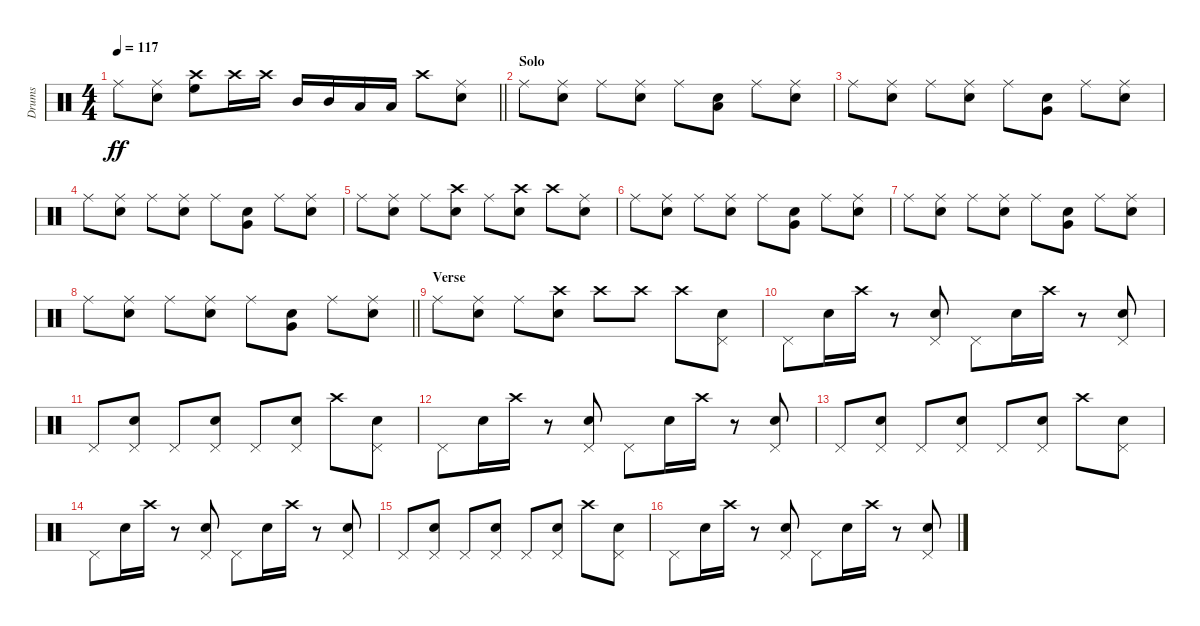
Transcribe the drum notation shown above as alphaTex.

\track ("Drums" "Drums") {instrument percussion}
\staff {score}
\articulation defaults
\ts (4 4)
\tempo 117
\clef neutral
\barLineRight lightlight
\ks c "Ride (middle)".8{dy ff}
("Snare (hit) 2" "Ride (middle)").8 ("Crash high (hit)" "High Floor Tom (hit)").8 "Crash high (hit)".16 "Crash high (hit)".16 "Mid Tom (hit)".16 "Mid Tom (hit)".16 "Low Tom (hit)".16 "Low Tom (hit)".16 "Crash high (hit)".8 ("Snare (hit) 2" "Ride (middle)").8 |
\section ("" "Solo")
"Ride (middle)".8 ("Snare (hit) 2" "Ride (middle)").8 "Ride (middle)".8 ("Snare (hit) 2" "Ride (middle)").8 "Ride (middle)".8 ("Snare (hit) 2" "Low Floor Tom (hit)").8 "Ride (middle)".8 ("Snare (hit) 2" "Ride (middle)").8 |
"Ride (middle)".8 ("Snare (hit) 2" "Ride (middle)").8 "Ride (middle)".8 ("Snare (hit) 2" "Ride (middle)").8 "Ride (middle)".8 ("Snare (hit) 2" "Very Low Tom (hit)").8 "Ride (middle)".8 ("Snare (hit) 2" "Ride (middle)").8 |
"Ride (middle)".8 ("Snare (hit) 2" "Ride (middle)").8 "Ride (middle)".8 ("Snare (hit) 2" "Ride (middle)").8 "Ride (middle)".8 ("Snare (hit) 2" "Very Low Tom (hit)").8 "Ride (middle)".8 ("Snare (hit) 2" "Ride (middle)").8 |
"Ride (middle)".8 ("Snare (hit) 2" "Ride (middle)").8 "Ride (middle)".8 ("Snare (hit) 2" "Crash high (hit)").8 "Ride (middle)".8 ("Snare (hit) 2" "Crash high (hit)").8 "Crash high (hit)".8 ("Snare (hit) 2" "Ride (middle)").8 |
"Ride (middle)".8 ("Snare (hit) 2" "Ride (middle)").8 "Ride (middle)".8 ("Snare (hit) 2" "Ride (middle)").8 "Ride (middle)".8 ("Snare (hit) 2" "Very Low Tom (hit)").8 "Ride (middle)".8 ("Snare (hit) 2" "Ride (middle)").8 |
"Ride (middle)".8 ("Snare (hit) 2" "Ride (middle)").8 "Ride (middle)".8 ("Snare (hit) 2" "Ride (middle)").8 "Ride (middle)".8 ("Snare (hit) 2" "Very Low Tom (hit)").8 "Ride (middle)".8 ("Snare (hit) 2" "Ride (middle)").8 |
\barLineRight lightlight "Ride (middle)".8
("Snare (hit) 2" "Ride (middle)").8 "Ride (middle)".8 ("Snare (hit) 2" "Ride (middle)").8 "Ride (middle)".8 ("Snare (hit) 2" "Very Low Tom (hit)").8 "Ride (middle)".8 ("Snare (hit) 2" "Ride (middle)").8 |
\section ("" "Verse")
"Ride (middle)".8 ("Snare (hit) 2" "Ride (middle)").8 "Ride (middle)".8 ("Snare (hit) 2" "Crash high (hit)").8 "Crash high (hit)".8 "Crash high (hit)".8 "Crash high (hit)".8 ("Snare (hit) 2" "Pedal Hi-Hat (hit)").8 |
"Pedal Hi-Hat (hit)".8 "Snare (hit) 2".16 "Crash high (hit)".16 r.8 ("Snare (hit) 2" "Pedal Hi-Hat (hit)").8 "Pedal Hi-Hat (hit)".8 "Snare (hit) 2".16 "Crash high (hit)".16 r.8 ("Snare (hit) 2" "Pedal Hi-Hat (hit)").8 |
"Pedal Hi-Hat (hit)".8 ("Snare (hit) 2" "Pedal Hi-Hat (hit)").8 "Pedal Hi-Hat (hit)".8 ("Snare (hit) 2" "Pedal Hi-Hat (hit)").8 "Pedal Hi-Hat (hit)".8 ("Snare (hit) 2" "Pedal Hi-Hat (hit)").8 "Crash high (hit)".8 ("Snare (hit) 2" "Pedal Hi-Hat (hit)").8 |
"Pedal Hi-Hat (hit)".8 "Snare (hit) 2".16 "Crash high (hit)".16 r.8 ("Snare (hit) 2" "Pedal Hi-Hat (hit)").8 "Pedal Hi-Hat (hit)".8 "Snare (hit) 2".16 "Crash high (hit)".16 r.8 ("Snare (hit) 2" "Pedal Hi-Hat (hit)").8 |
"Pedal Hi-Hat (hit)".8 ("Snare (hit) 2" "Pedal Hi-Hat (hit)").8 "Pedal Hi-Hat (hit)".8 ("Snare (hit) 2" "Pedal Hi-Hat (hit)").8 "Pedal Hi-Hat (hit)".8 ("Snare (hit) 2" "Pedal Hi-Hat (hit)").8 "Crash high (hit)".8 ("Snare (hit) 2" "Pedal Hi-Hat (hit)").8 |
"Pedal Hi-Hat (hit)".8 "Snare (hit) 2".16 "Crash high (hit)".16 r.8 ("Snare (hit) 2" "Pedal Hi-Hat (hit)").8 "Pedal Hi-Hat (hit)".8 "Snare (hit) 2".16 "Crash high (hit)".16 r.8 ("Snare (hit) 2" "Pedal Hi-Hat (hit)").8 |
"Pedal Hi-Hat (hit)".8 ("Snare (hit) 2" "Pedal Hi-Hat (hit)").8 "Pedal Hi-Hat (hit)".8 ("Snare (hit) 2" "Pedal Hi-Hat (hit)").8 "Pedal Hi-Hat (hit)".8 ("Snare (hit) 2" "Pedal Hi-Hat (hit)").8 "Crash high (hit)".8 ("Snare (hit) 2" "Pedal Hi-Hat (hit)").8 |
"Pedal Hi-Hat (hit)".8 "Snare (hit) 2".16 "Crash high (hit)".16 r.8 ("Snare (hit) 2" "Pedal Hi-Hat (hit)").8 "Pedal Hi-Hat (hit)".8 "Snare (hit) 2".16 "Crash high (hit)".16 r.8 ("Snare (hit) 2" "Pedal Hi-Hat (hit)").8
